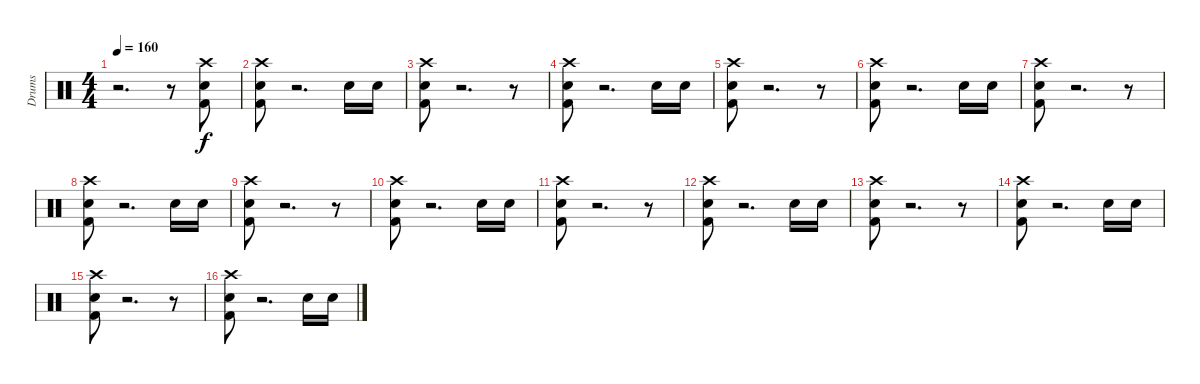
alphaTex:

\track ("Drums" "Drums") {instrument percussion}
\staff {score}
\articulation defaults
\ts (4 4)
\tempo 160
\clef neutral
\ks c
r.2{d dy f} r.8 ("Kick (hit) 2" "Snare (hit) 2" "Crash high (hit)").8 |
("Kick (hit) 2" "Snare (hit) 2" "Crash high (hit)").8 r.2{d} "Snare (hit) 2".16 "Snare (hit) 2".16 |
("Kick (hit) 2" "Snare (hit) 2" "Crash high (hit)").8 r.2{d} r.8 |
("Kick (hit) 2" "Snare (hit) 2" "Crash high (hit)").8 r.2{d} "Snare (hit) 2".16 "Snare (hit) 2".16 |
("Kick (hit) 2" "Snare (hit) 2" "Crash high (hit)").8 r.2{d} r.8 |
("Kick (hit) 2" "Snare (hit) 2" "Crash high (hit)").8 r.2{d} "Snare (hit) 2".16 "Snare (hit) 2".16 |
("Kick (hit) 2" "Snare (hit) 2" "Crash high (hit)").8 r.2{d} r.8 |
("Kick (hit) 2" "Snare (hit) 2" "Crash high (hit)").8 r.2{d} "Snare (hit) 2".16 "Snare (hit) 2".16 |
("Kick (hit) 2" "Snare (hit) 2" "Crash high (hit)").8 r.2{d} r.8 |
("Kick (hit) 2" "Snare (hit) 2" "Crash high (hit)").8 r.2{d} "Snare (hit) 2".16 "Snare (hit) 2".16 |
("Kick (hit) 2" "Snare (hit) 2" "Crash high (hit)").8 r.2{d} r.8 |
("Kick (hit) 2" "Snare (hit) 2" "Crash high (hit)").8 r.2{d} "Snare (hit) 2".16 "Snare (hit) 2".16 |
("Kick (hit) 2" "Snare (hit) 2" "Crash high (hit)").8 r.2{d} r.8 |
("Kick (hit) 2" "Snare (hit) 2" "Crash high (hit)").8 r.2{d} "Snare (hit) 2".16 "Snare (hit) 2".16 |
("Kick (hit) 2" "Snare (hit) 2" "Crash high (hit)").8 r.2{d} r.8 |
("Kick (hit) 2" "Snare (hit) 2" "Crash high (hit)").8 r.2{d} "Snare (hit) 2".16 "Snare (hit) 2".16
